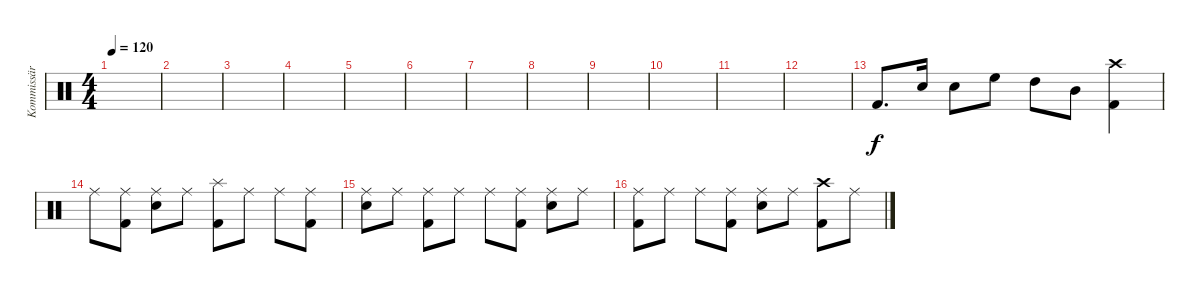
\track ("Kommissär Ogrim" "Kommissär ") {instrument percussion}
\staff {score}
\articulation defaults
\ts (4 4)
\tempo 120
\clef neutral
\ks c
|
|
|
|
|
|
|
|
|
|
|
|
"Kick (hit) 2".8{d} "Snare (hit) 2".16 "Snare (hit) 2".8 "High Floor Tom (hit)".8 "High Tom (hit)".8 "Mid Tom (hit)".8 ("Crash high (hit)" "Kick (hit) 2").4 |
"Ride (middle)".8 ("Ride (middle)" "Kick (hit) 2").8 ("Snare (hit) 2" "Ride (middle)").8 "Ride (middle)".8 ("Splash (hit)" "Kick (hit) 2").8 "Ride (middle)".8 "Ride (middle)".8 ("Ride (middle)" "Kick (hit) 2").8 |
("Snare (hit) 2" "Ride (middle)").8 "Ride (middle)".8 ("Ride (middle)" "Kick (hit) 2").8 "Ride (middle)".8 "Ride (middle)".8 ("Ride (middle)" "Kick (hit) 2").8 ("Snare (hit) 2" "Ride (middle)").8 "Ride (middle)".8 |
("Ride (middle)" "Kick (hit) 2").8 "Ride (middle)".8 "Ride (middle)".8 ("Ride (middle)" "Kick (hit) 2").8 ("Snare (hit) 2" "Ride (middle)").8 "Ride (middle)".8 ("Crash high (hit)" "Kick (hit) 2").8 "Ride (middle)".8
